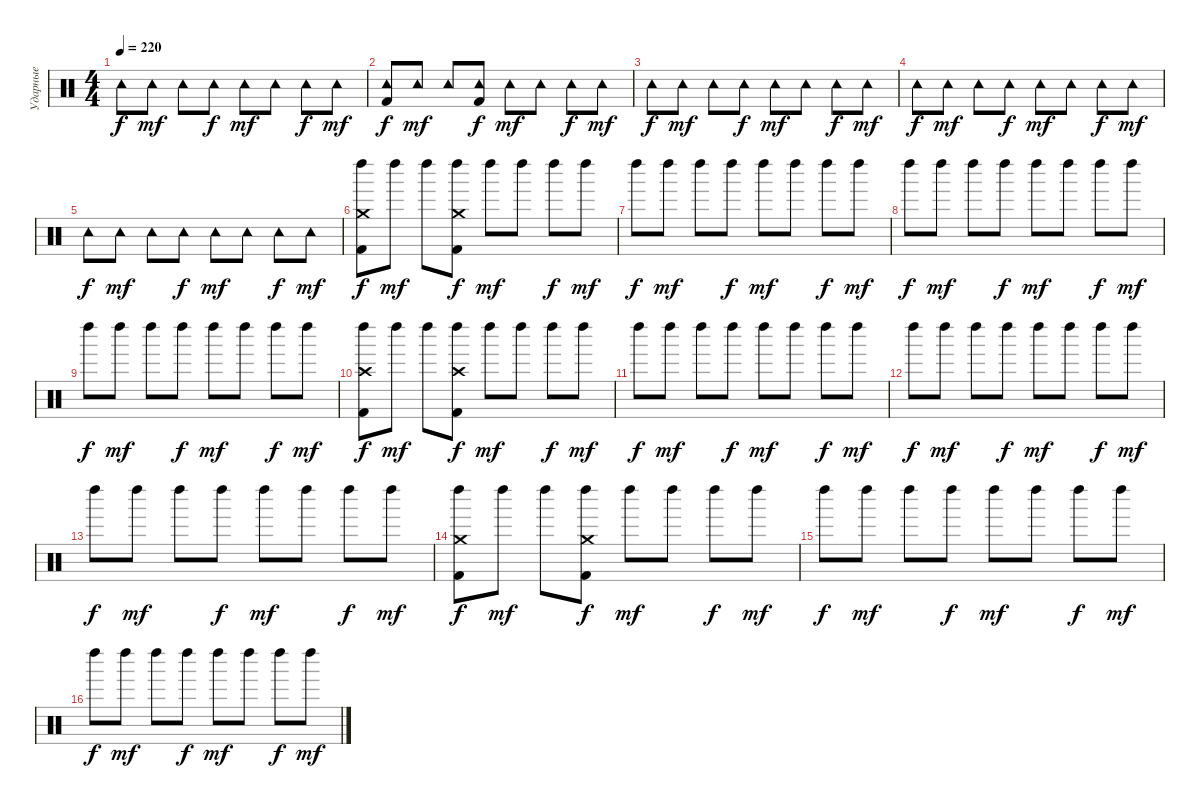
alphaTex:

\track ("Ударные" "Ударные") {instrument percussion}
\staff {score}
\articulation defaults
\ts (4 4)
\tempo 220
\clef neutral
\ks c "Tambourine (hit)".8{dy f} "Tambourine (hit)".8{dy mf} "Tambourine (hit)".8 "Tambourine (hit)".8{dy f} "Tambourine (hit)".8{dy mf} "Tambourine (hit)".8 "Tambourine (hit)".8{dy f} "Tambourine (hit)".8{dy mf}
|
("Kick (hit) 2" "Tambourine (hit)").8{dy f} "Tambourine (hit)".8{dy mf} "Tambourine (hit)".8 ("Kick (hit) 2" "Tambourine (hit)").8{dy f} "Tambourine (hit)".8{dy mf} "Tambourine (hit)".8 "Tambourine (hit)".8{dy f} "Tambourine (hit)".8{dy mf} |
"Tambourine (hit)".8{dy f} "Tambourine (hit)".8{dy mf} "Tambourine (hit)".8 "Tambourine (hit)".8{dy f} "Tambourine (hit)".8{dy mf} "Tambourine (hit)".8 "Tambourine (hit)".8{dy f} "Tambourine (hit)".8{dy mf} |
"Tambourine (hit)".8{dy f} "Tambourine (hit)".8{dy mf} "Tambourine (hit)".8 "Tambourine (hit)".8{dy f} "Tambourine (hit)".8{dy mf} "Tambourine (hit)".8 "Tambourine (hit)".8{dy f} "Tambourine (hit)".8{dy mf} |
"Tambourine (hit)".8{dy f} "Tambourine (hit)".8{dy mf} "Tambourine (hit)".8 "Tambourine (hit)".8{dy f} "Tambourine (hit)".8{dy mf} "Tambourine (hit)".8 "Tambourine (hit)".8{dy f} "Tambourine (hit)".8{dy mf} |
("Crash medium (hit)" "Left Maraca (hit)" "Kick (hit) 2").8{dy f} "Left Maraca (hit)".8{dy mf} "Left Maraca (hit)".8 ("Crash medium (hit)" "Left Maraca (hit)" "Kick (hit) 2").8{dy f} "Left Maraca (hit)".8{dy mf} "Left Maraca (hit)".8 "Left Maraca (hit)".8{dy f} "Left Maraca (hit)".8{dy mf} |
"Left Maraca (hit)".8{dy f} "Left Maraca (hit)".8{dy mf} "Left Maraca (hit)".8 "Left Maraca (hit)".8{dy f} "Left Maraca (hit)".8{dy mf} "Left Maraca (hit)".8 "Left Maraca (hit)".8{dy f} "Left Maraca (hit)".8{dy mf} |
"Left Maraca (hit)".8{dy f} "Left Maraca (hit)".8{dy mf} "Left Maraca (hit)".8 "Left Maraca (hit)".8{dy f} "Left Maraca (hit)".8{dy mf} "Left Maraca (hit)".8 "Left Maraca (hit)".8{dy f} "Left Maraca (hit)".8{dy mf} |
"Left Maraca (hit)".8{dy f} "Left Maraca (hit)".8{dy mf} "Left Maraca (hit)".8 "Left Maraca (hit)".8{dy f} "Left Maraca (hit)".8{dy mf} "Left Maraca (hit)".8 "Left Maraca (hit)".8{dy f} "Left Maraca (hit)".8{dy mf} |
("Crash high (hit)" "Kick (hit) 2" "Left Maraca (hit)").8{dy f} "Left Maraca (hit)".8{dy mf} "Left Maraca (hit)".8 ("Crash high (hit)" "Kick (hit) 2" "Left Maraca (hit)").8{dy f} "Left Maraca (hit)".8{dy mf} "Left Maraca (hit)".8 "Left Maraca (hit)".8{dy f} "Left Maraca (hit)".8{dy mf} |
"Left Maraca (hit)".8{dy f} "Left Maraca (hit)".8{dy mf} "Left Maraca (hit)".8 "Left Maraca (hit)".8{dy f} "Left Maraca (hit)".8{dy mf} "Left Maraca (hit)".8 "Left Maraca (hit)".8{dy f} "Left Maraca (hit)".8{dy mf} |
"Left Maraca (hit)".8{dy f} "Left Maraca (hit)".8{dy mf} "Left Maraca (hit)".8 "Left Maraca (hit)".8{dy f} "Left Maraca (hit)".8{dy mf} "Left Maraca (hit)".8 "Left Maraca (hit)".8{dy f} "Left Maraca (hit)".8{dy mf} |
"Left Maraca (hit)".8{dy f} "Left Maraca (hit)".8{dy mf} "Left Maraca (hit)".8 "Left Maraca (hit)".8{dy f} "Left Maraca (hit)".8{dy mf} "Left Maraca (hit)".8 "Left Maraca (hit)".8{dy f} "Left Maraca (hit)".8{dy mf} |
("Crash medium (hit)" "Left Maraca (hit)" "Kick (hit) 2").8{dy f} "Left Maraca (hit)".8{dy mf} "Left Maraca (hit)".8 ("Crash medium (hit)" "Left Maraca (hit)" "Kick (hit) 2").8{dy f} "Left Maraca (hit)".8{dy mf} "Left Maraca (hit)".8 "Left Maraca (hit)".8{dy f} "Left Maraca (hit)".8{dy mf} |
"Left Maraca (hit)".8{dy f} "Left Maraca (hit)".8{dy mf} "Left Maraca (hit)".8 "Left Maraca (hit)".8{dy f} "Left Maraca (hit)".8{dy mf} "Left Maraca (hit)".8 "Left Maraca (hit)".8{dy f} "Left Maraca (hit)".8{dy mf} |
"Left Maraca (hit)".8{dy f} "Left Maraca (hit)".8{dy mf} "Left Maraca (hit)".8 "Left Maraca (hit)".8{dy f} "Left Maraca (hit)".8{dy mf} "Left Maraca (hit)".8 "Left Maraca (hit)".8{dy f} "Left Maraca (hit)".8{dy mf}
